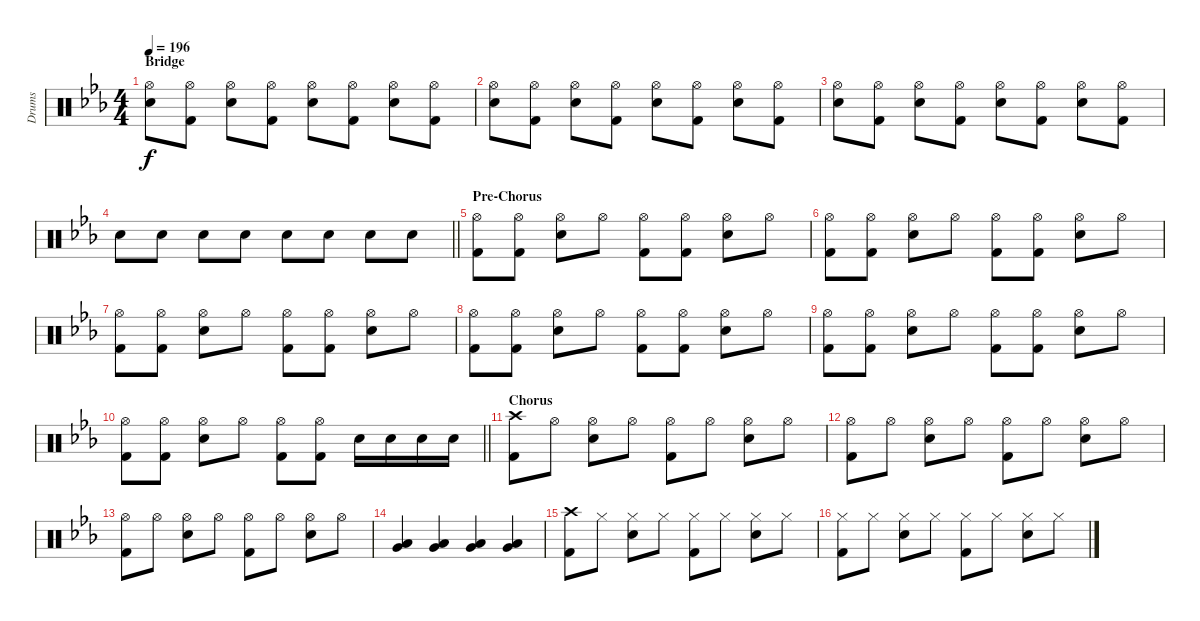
\track ("Drums" "Drums") {instrument percussion}
\staff {score}
\articulation defaults
\ts (4 4)
\section ("" "Bridge")
\tempo 196
\clef neutral
\ks eb
("Hi-Hat (open)" "Snare (hit) 2").8{dy f} ("Hi-Hat (open)" "Kick (hit) 2").8 ("Hi-Hat (open)" "Snare (hit) 2").8 ("Hi-Hat (open)" "Kick (hit) 2").8 ("Hi-Hat (open)" "Snare (hit) 2").8 ("Hi-Hat (open)" "Kick (hit) 2").8 ("Hi-Hat (open)" "Snare (hit) 2").8 ("Hi-Hat (open)" "Kick (hit) 2").8 |
("Hi-Hat (open)" "Snare (hit) 2").8 ("Hi-Hat (open)" "Kick (hit) 2").8 ("Hi-Hat (open)" "Snare (hit) 2").8 ("Hi-Hat (open)" "Kick (hit) 2").8 ("Hi-Hat (open)" "Snare (hit) 2").8 ("Hi-Hat (open)" "Kick (hit) 2").8 ("Hi-Hat (open)" "Snare (hit) 2").8 ("Hi-Hat (open)" "Kick (hit) 2").8 |
("Hi-Hat (open)" "Snare (hit) 2").8 ("Hi-Hat (open)" "Kick (hit) 2").8 ("Hi-Hat (open)" "Snare (hit) 2").8 ("Hi-Hat (open)" "Kick (hit) 2").8 ("Hi-Hat (open)" "Snare (hit) 2").8 ("Hi-Hat (open)" "Kick (hit) 2").8 ("Hi-Hat (open)" "Snare (hit) 2").8 ("Hi-Hat (open)" "Kick (hit) 2").8 |
\barLineRight lightlight "Snare (hit) 2".8 "Snare (hit) 2".8 "Snare (hit) 2".8 "Snare (hit) 2".8 "Snare (hit) 2".8 "Snare (hit) 2".8 "Snare (hit) 2".8 "Snare (hit) 2".8
|
\section ("" "Pre-Chorus")
("Hi-Hat (open)" "Kick (hit) 2").8 ("Hi-Hat (open)" "Kick (hit) 2").8 ("Hi-Hat (open)" "Snare (hit) 2").8 "Hi-Hat (open)".8 ("Hi-Hat (open)" "Kick (hit) 2").8 ("Hi-Hat (open)" "Kick (hit) 2").8 ("Hi-Hat (open)" "Snare (hit) 2").8 "Hi-Hat (open)".8 |
("Hi-Hat (open)" "Kick (hit) 2").8 ("Hi-Hat (open)" "Kick (hit) 2").8 ("Hi-Hat (open)" "Snare (hit) 2").8 "Hi-Hat (open)".8 ("Hi-Hat (open)" "Kick (hit) 2").8 ("Hi-Hat (open)" "Kick (hit) 2").8 ("Hi-Hat (open)" "Snare (hit) 2").8 "Hi-Hat (open)".8 |
("Hi-Hat (open)" "Kick (hit) 2").8 ("Hi-Hat (open)" "Kick (hit) 2").8 ("Hi-Hat (open)" "Snare (hit) 2").8 "Hi-Hat (open)".8 ("Hi-Hat (open)" "Kick (hit) 2").8 ("Hi-Hat (open)" "Kick (hit) 2").8 ("Hi-Hat (open)" "Snare (hit) 2").8 "Hi-Hat (open)".8 |
("Hi-Hat (open)" "Kick (hit) 2").8 ("Hi-Hat (open)" "Kick (hit) 2").8 ("Hi-Hat (open)" "Snare (hit) 2").8 "Hi-Hat (open)".8 ("Hi-Hat (open)" "Kick (hit) 2").8 ("Hi-Hat (open)" "Kick (hit) 2").8 ("Hi-Hat (open)" "Snare (hit) 2").8 "Hi-Hat (open)".8 |
("Hi-Hat (open)" "Kick (hit) 2").8 ("Hi-Hat (open)" "Kick (hit) 2").8 ("Hi-Hat (open)" "Snare (hit) 2").8 "Hi-Hat (open)".8 ("Hi-Hat (open)" "Kick (hit) 2").8 ("Hi-Hat (open)" "Kick (hit) 2").8 ("Hi-Hat (open)" "Snare (hit) 2").8 "Hi-Hat (open)".8 |
\barLineRight lightlight
("Hi-Hat (open)" "Kick (hit) 2").8 ("Hi-Hat (open)" "Kick (hit) 2").8 ("Hi-Hat (open)" "Snare (hit) 2").8 "Hi-Hat (open)".8 ("Hi-Hat (open)" "Kick (hit) 2").8 ("Hi-Hat (open)" "Kick (hit) 2").8 "Snare (hit) 2".16 "Snare (hit) 2".16 "Snare (hit) 2".16 "Snare (hit) 2".16 |
\section ("" "Chorus")
("Crash high (hit)" "Kick (hit) 2").8 "Hi-Hat (open)".8 ("Hi-Hat (open)" "Snare (hit) 2").8 "Hi-Hat (open)".8 ("Hi-Hat (open)" "Kick (hit) 2").8 "Hi-Hat (open)".8 ("Hi-Hat (open)" "Snare (hit) 2").8 "Hi-Hat (open)".8 |
("Hi-Hat (open)" "Kick (hit) 2").8 "Hi-Hat (open)".8 ("Hi-Hat (open)" "Snare (hit) 2").8 "Hi-Hat (open)".8 ("Hi-Hat (open)" "Kick (hit) 2").8 "Hi-Hat (open)".8 ("Hi-Hat (open)" "Snare (hit) 2").8 "Hi-Hat (open)".8 |
("Hi-Hat (open)" "Kick (hit) 2").8 "Hi-Hat (open)".8 ("Hi-Hat (open)" "Snare (hit) 2").8 "Hi-Hat (open)".8 ("Hi-Hat (open)" "Kick (hit) 2").8 "Hi-Hat (open)".8 ("Hi-Hat (open)" "Snare (hit) 2").8 "Hi-Hat (open)".8 |
("Very Low Tom (hit)" "Low Floor Tom (hit)").4 ("Very Low Tom (hit)" "Low Floor Tom (hit)").4 ("Very Low Tom (hit)" "Low Floor Tom (hit)").4 ("Very Low Tom (hit)" "Low Floor Tom (hit)").4 |
("Crash high (hit)" "Kick (hit) 2").8 "Hi-Hat (closed)".8 ("Hi-Hat (closed)" "Snare (hit) 2").8 "Hi-Hat (closed)".8 ("Hi-Hat (closed)" "Kick (hit) 2").8 "Hi-Hat (closed)".8 ("Hi-Hat (closed)" "Snare (hit) 2").8 "Hi-Hat (closed)".8 |
("Hi-Hat (closed)" "Kick (hit) 2").8 "Hi-Hat (closed)".8 ("Hi-Hat (closed)" "Snare (hit) 2").8 "Hi-Hat (closed)".8 ("Hi-Hat (closed)" "Kick (hit) 2").8 "Hi-Hat (closed)".8 ("Hi-Hat (closed)" "Snare (hit) 2").8 "Hi-Hat (closed)".8
